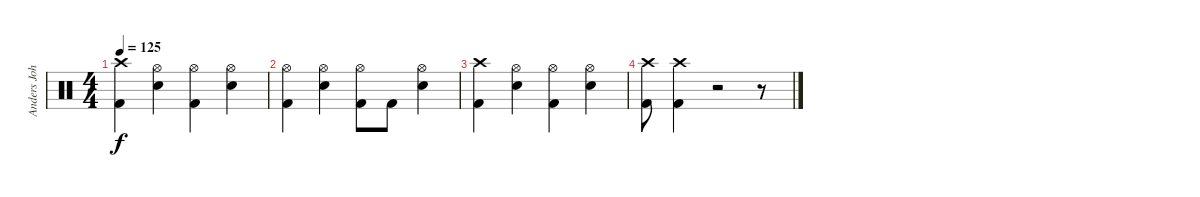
\track ("Anders Johansson" "Anders Joh") {instrument percussion}
\staff {score}
\articulation defaults
\ts (4 4)
\tempo 125
\clef neutral
\ks c
("Kick (hit) 2" "Crash high (hit)").4{dy f} ("Electric Snare (hit)" "Hi-Hat (open)").4 ("Kick (hit) 2" "Hi-Hat (open)").4 ("Electric Snare (hit)" "Hi-Hat (open)").4 |
("Kick (hit) 2" "Hi-Hat (open)").4 ("Electric Snare (hit)" "Hi-Hat (open)").4 ("Kick (hit) 2" "Hi-Hat (open)").8 "Kick (hit) 2".8 ("Hi-Hat (open)" "Electric Snare (hit)").4 |
("Kick (hit) 2" "Crash high (hit)").4 ("Electric Snare (hit)" "Hi-Hat (open)").4 ("Kick (hit) 2" "Hi-Hat (open)").4 ("Electric Snare (hit)" "Hi-Hat (open)").4 |
("Kick (hit) 2" "Crash high (hit)").8 ("Kick (hit) 2" "Crash high (hit)").4 r.2 r.8
